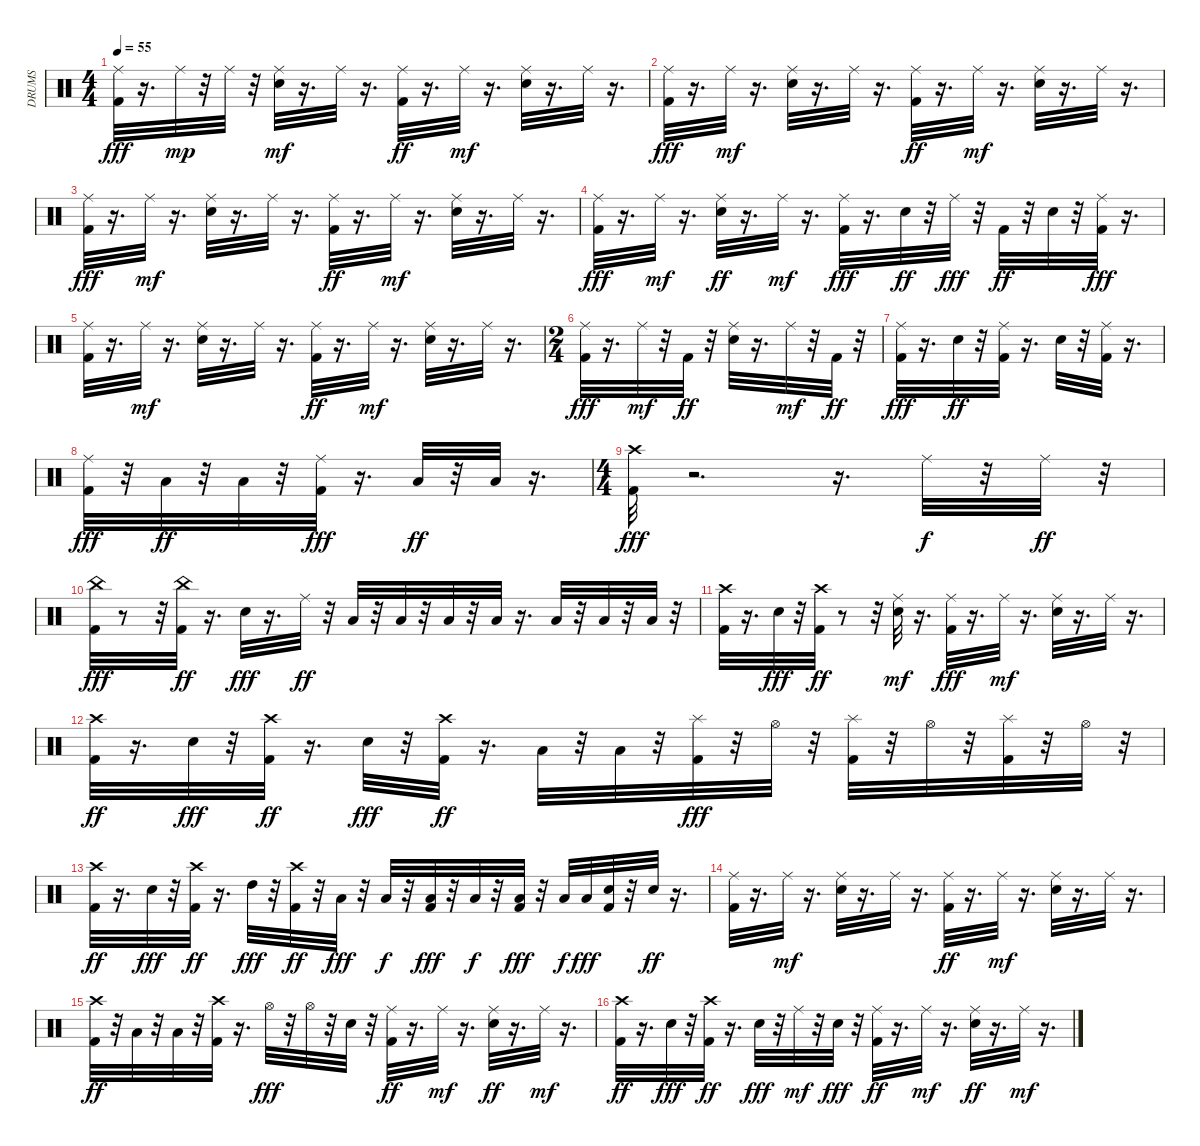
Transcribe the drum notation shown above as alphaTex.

\track ("DRUMS            " "DRUMS     ") {instrument percussion}
\staff {score}
\articulation defaults
\ts (4 4)
\tempo 55
\clef neutral
\ks c
("Ride (middle)" "Kick (hit) 2").32{dy fff} r.16{d} "Ride (middle)".32{dy mp} r.32 "Ride (middle)".32 r.32 ("Snare (hit) 2" "Ride (middle)").32{dy mf} r.16{d} "Ride (middle)".32 r.16{d} ("Ride (middle)" "Kick (hit) 2").32{dy ff} r.16{d} "Ride (middle)".32{dy mf} r.16{d} ("Snare (hit) 2" "Ride (middle)").32 r.16{d} "Ride (middle)".32 r.16{d} |
("Ride (middle)" "Kick (hit) 2").32{dy fff} r.16{d} "Ride (middle)".32{dy mf} r.16{d} ("Ride (middle)" "Snare (hit) 2").32 r.16{d} "Ride (middle)".32 r.16{d} ("Ride (middle)" "Kick (hit) 2").32{dy ff} r.16{d} "Ride (middle)".32{dy mf} r.16{d} ("Ride (middle)" "Snare (hit) 2").32 r.16{d} "Ride (middle)".32 r.16{d} |
("Ride (middle)" "Kick (hit) 2").32{dy fff} r.16{d} "Ride (middle)".32{dy mf} r.16{d} ("Ride (middle)" "Snare (hit) 2").32 r.16{d} "Ride (middle)".32 r.16{d} ("Ride (middle)" "Kick (hit) 2").32{dy ff} r.16{d} "Ride (middle)".32{dy mf} r.16{d} ("Ride (middle)" "Snare (hit) 2").32 r.16{d} "Ride (middle)".32 r.16{d} |
("Ride (middle)" "Kick (hit) 2").32{dy fff} r.16{d} "Ride (middle)".32{dy mf} r.16{d} ("Ride (middle)" "Snare (hit) 2").32{dy ff} r.16{d} "Ride (middle)".32{dy mf} r.16{d} ("Ride (middle)" "Kick (hit) 2").32{dy fff} r.16{d} "Snare (hit) 2".32{dy ff} r.32 "Ride (middle)".32{dy fff} r.32 "Kick (hit) 2".32{dy ff} r.32 "Snare (hit) 2".32 r.32 ("Ride (middle)" "Kick (hit) 2").32{dy fff} r.16{d} |
("Ride (middle)" "Kick (hit) 2").32 r.16{d} "Ride (middle)".32{dy mf} r.16{d} ("Ride (middle)" "Snare (hit) 2").32 r.16{d} "Ride (middle)".32 r.16{d} ("Ride (middle)" "Kick (hit) 2").32{dy ff} r.16{d} "Ride (middle)".32{dy mf} r.16{d} ("Ride (middle)" "Snare (hit) 2").32 r.16{d} "Ride (middle)".32 r.16{d} |
\ts (2 4)
("Ride (middle)" "Kick (hit) 2").32{dy fff} r.16{d} "Ride (middle)".32{dy mf} r.32 "Kick (hit) 2".32{dy ff} r.32 ("Ride (middle)" "Snare (hit) 2").32 r.16{d} "Ride (middle)".32{dy mf} r.32 "Kick (hit) 2".32{dy ff} r.32 |
("Ride (middle)" "Kick (hit) 2").32{dy fff} r.16{d} "Snare (hit) 2".32{dy ff} r.32 ("Ride (middle)" "Kick (hit) 2").32 r.16{d} "Snare (hit) 2".32 r.32 ("Ride (middle)" "Kick (hit) 2").32 r.16{d} |
("Kick (hit) 2" "Ride (middle)").32{dy fff} r.32 "Low Tom (hit)".32{dy ff} r.32 "Low Floor Tom (hit)".32 r.32 ("Kick (hit) 2" "Ride (middle)").32{dy fff} r.16{d} "Low Floor Tom (hit)".32{dy ff} r.32 "Low Tom (hit)".32 r.16{d} |
\ts (4 4)
("Crash high (hit)" "Kick (hit) 2").32{dy fff} r.2{d} r.16{d} "Ride (middle)".32{dy f} r.32 "Ride (middle)".32{dy ff} r.32 |
("China (hit)" "Kick (hit) 2").32{dy fff} r.8 r.32 ("China (hit)" "Kick (hit) 2").32{dy ff} r.16{d} "Snare (hit) 2".32{dy fff} r.16{d} "Ride (middle)".32{dy ff} r.32 "Low Tom (hit)".32 r.32 "Low Tom (hit)".32 r.32 "Low Floor Tom (hit)".32 r.32 "Low Tom (hit)".32 r.16{d} "Low Floor Tom (hit)".32 r.32 "Low Tom (hit)".32 r.32 "Low Tom (hit)".32 r.32 |
("Kick (hit) 2" "Crash high (hit)").32 r.16{d} "Snare (hit) 2".32{dy fff} r.32 ("Kick (hit) 2" "Crash high (hit)").32{dy ff} r.8 r.32 ("Snare (hit) 2" "Ride (middle)").32{dy mf} r.16{d} ("Kick (hit) 2" "Ride (middle)").32{dy fff} r.16{d} "Ride (middle)".32{dy mf} r.16{d} ("Snare (hit) 2" "Ride (middle)").32 r.16{d} "Ride (middle)".32 r.16{d} |
("Kick (hit) 2" "Crash high (hit)").32{dy ff} r.16{d} "Snare (hit) 2".32{dy fff} r.32 ("Kick (hit) 2" "Crash high (hit)").32{dy ff} r.16{d} "Snare (hit) 2".32{dy fff} r.32 ("Kick (hit) 2" "Crash high (hit)").32{dy ff} r.16{d} "Low Floor Tom (hit)".32 r.32 "Low Tom (hit)".32 r.32 ("Kick (hit) 2" "Splash (hit)").32{dy fff} r.32 "Hi-Hat (open)".32 r.32 ("Kick (hit) 2" "Splash (hit)").32 r.32 "Hi-Hat (open)".32 r.32 ("Kick (hit) 2" "Splash (hit)").32 r.32 "Hi-Hat (open)".32 r.32 |
("Kick (hit) 2" "Crash high (hit)").32{dy ff} r.16{d} "Snare (hit) 2".32{dy fff} r.32 ("Kick (hit) 2" "Crash high (hit)").32{dy ff} r.16{d} "High Tom (hit)".32{dy fff} r.32 ("Kick (hit) 2" "Crash high (hit)").32{dy ff} r.32 "Low Tom (hit)".32{dy fff} r.32 "Low Tom (hit)".32{dy f} r.32 ("Kick (hit) 2" "Low Tom (hit)").32{dy fff} r.32 "Low Floor Tom (hit)".32{dy f} r.32 ("Kick (hit) 2" "Low Floor Tom (hit)").32{dy fff} r.32 "Low Floor Tom (hit)".32{dy f} "Low Floor Tom (hit)".32{dy fff} ("Kick (hit) 2" "Snare (hit) 2").32 r.32 "Snare (hit) 2".32{dy ff} r.16{d} |
("Kick (hit) 2" "Ride (middle)").32 r.16{d} "Ride (middle)".32{dy mf} r.16{d} ("Snare (hit) 2" "Ride (middle)").32 r.16{d} "Ride (middle)".32 r.16{d} ("Kick (hit) 2" "Ride (middle)").32{dy ff} r.16{d} "Ride (middle)".32{dy mf} r.16{d} ("Snare (hit) 2" "Ride (middle)").32 r.16{d} "Ride (middle)".32 r.16{d} |
("Kick (hit) 2" "Crash high (hit)").32{dy ff} r.32 "Low Tom (hit)".32 r.32 "Low Tom (hit)".32 r.32 ("Kick (hit) 2" "Crash high (hit)").32 r.16{d} "Hi-Hat (open)".32{dy fff} r.32 "Hi-Hat (open)".32 r.32 "Snare (hit) 2".32 r.32 ("Kick (hit) 2" "Ride (middle)").32{dy ff} r.16{d} "Ride (middle)".32{dy mf} r.16{d} ("Snare (hit) 2" "Ride (middle)").32{dy ff} r.16{d} "Ride (middle)".32{dy mf} r.16{d} |
("Kick (hit) 2" "Crash high (hit)").32{dy ff} r.16{d} "Snare (hit) 2".32{dy fff} r.32 ("Kick (hit) 2" "Crash high (hit)").32{dy ff} r.16{d} "Snare (hit) 2".32{dy fff} r.32 "Ride (middle)".32{dy mf} r.32 "Snare (hit) 2".32{dy fff} r.32 ("Kick (hit) 2" "Ride (middle)").32{dy ff} r.16{d} "Ride (middle)".32{dy mf} r.16{d} ("Snare (hit) 2" "Ride (middle)").32{dy ff} r.16{d} "Ride (middle)".32{dy mf} r.16{d}
